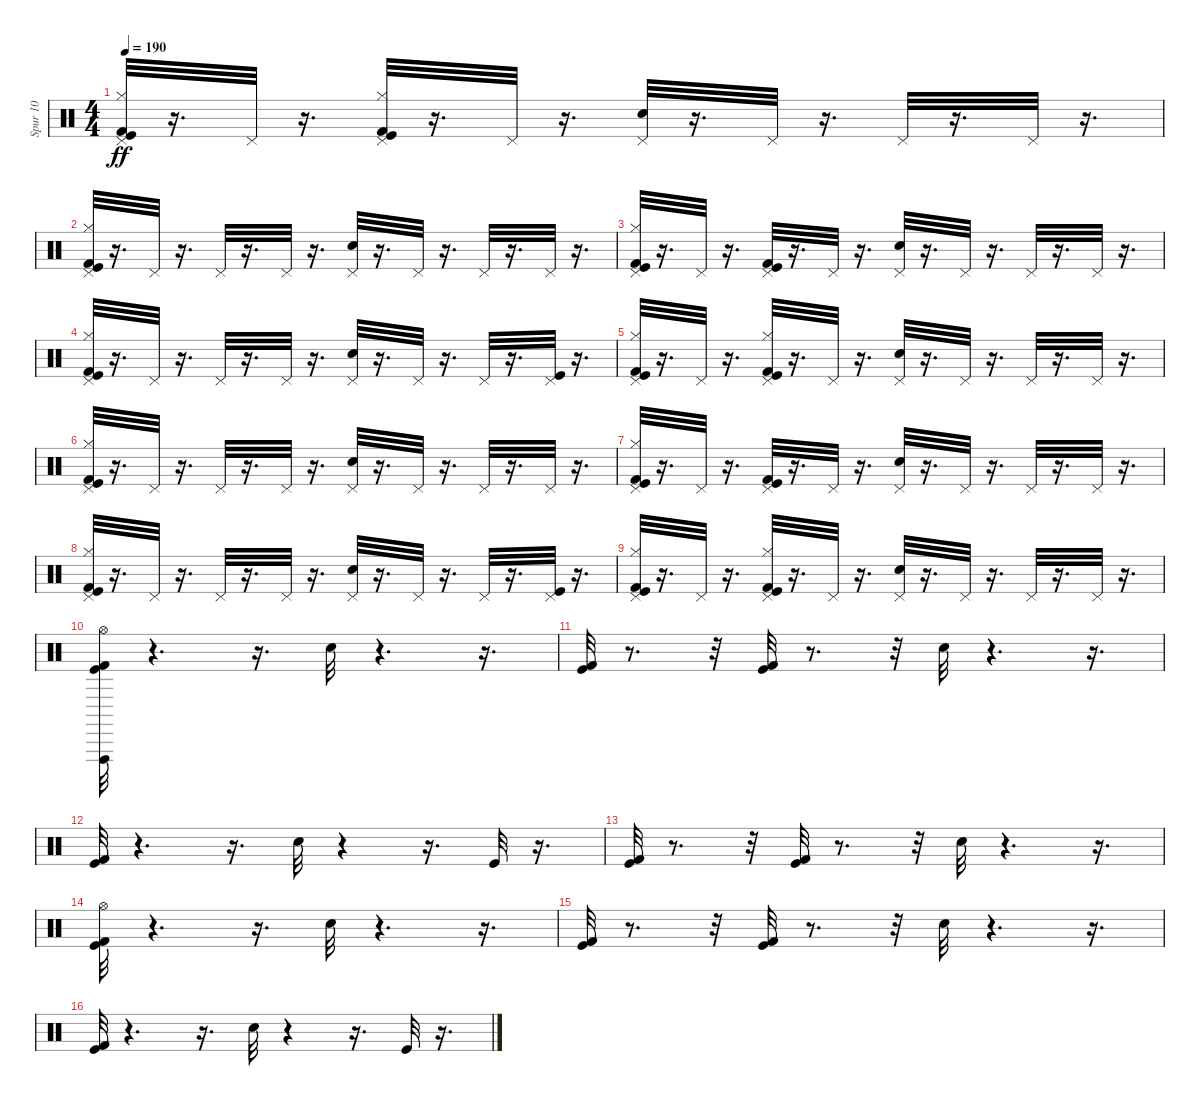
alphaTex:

\track ("Spur 10" "Spur 10") {instrument percussion}
\staff {score}
\articulation defaults
\ts (4 4)
\tempo 190
\clef neutral
\ks c
("Kick (hit)" "Kick (hit) 2" "Hi-Hat (closed)" "Pedal Hi-Hat (hit)").32{dy ff} r.16{d} "Pedal Hi-Hat (hit)".32 r.16{d} ("Hi-Hat (closed)" "Kick (hit)" "Pedal Hi-Hat (hit)" "Kick (hit) 2").32 r.16{d} "Pedal Hi-Hat (hit)".32 r.16{d} ("Hand Clap (hit)" "Pedal Hi-Hat (hit)").32 r.16{d} "Pedal Hi-Hat (hit)".32 r.16{d} "Pedal Hi-Hat (hit)".32 r.16{d} "Pedal Hi-Hat (hit)".32 r.16{d} |
("Kick (hit) 2" "Kick (hit)" "Pedal Hi-Hat (hit)" "Hi-Hat (closed)").32 r.16{d} "Pedal Hi-Hat (hit)".32 r.16{d} "Pedal Hi-Hat (hit)".32 r.16{d} "Pedal Hi-Hat (hit)".32 r.16{d} ("Hand Clap (hit)" "Pedal Hi-Hat (hit)").32 r.16{d} "Pedal Hi-Hat (hit)".32 r.16{d} "Pedal Hi-Hat (hit)".32 r.16{d} "Pedal Hi-Hat (hit)".32 r.16{d} |
("Pedal Hi-Hat (hit)" "Hi-Hat (closed)" "Kick (hit)" "Kick (hit) 2").32 r.16{d} "Pedal Hi-Hat (hit)".32 r.16{d} ("Pedal Hi-Hat (hit)" "Kick (hit) 2" "Kick (hit)").32 r.16{d} "Pedal Hi-Hat (hit)".32 r.16{d} ("Pedal Hi-Hat (hit)" "Hand Clap (hit)").32 r.16{d} "Pedal Hi-Hat (hit)".32 r.16{d} "Pedal Hi-Hat (hit)".32 r.16{d} "Pedal Hi-Hat (hit)".32 r.16{d} |
("Kick (hit)" "Kick (hit) 2" "Pedal Hi-Hat (hit)" "Hi-Hat (closed)").32 r.16{d} "Pedal Hi-Hat (hit)".32 r.16{d} "Pedal Hi-Hat (hit)".32 r.16{d} "Pedal Hi-Hat (hit)".32 r.16{d} ("Pedal Hi-Hat (hit)" "Hand Clap (hit)").32 r.16{d} "Pedal Hi-Hat (hit)".32 r.16{d} "Pedal Hi-Hat (hit)".32 r.16{d} ("Pedal Hi-Hat (hit)" "Kick (hit)").32 r.16{d} |
("Kick (hit)" "Kick (hit) 2" "Hi-Hat (closed)" "Pedal Hi-Hat (hit)").32 r.16{d} "Pedal Hi-Hat (hit)".32 r.16{d} ("Hi-Hat (closed)" "Kick (hit)" "Pedal Hi-Hat (hit)" "Kick (hit) 2").32 r.16{d} "Pedal Hi-Hat (hit)".32 r.16{d} ("Hand Clap (hit)" "Pedal Hi-Hat (hit)").32 r.16{d} "Pedal Hi-Hat (hit)".32 r.16{d} "Pedal Hi-Hat (hit)".32 r.16{d} "Pedal Hi-Hat (hit)".32 r.16{d} |
("Kick (hit) 2" "Kick (hit)" "Pedal Hi-Hat (hit)" "Hi-Hat (closed)").32 r.16{d} "Pedal Hi-Hat (hit)".32 r.16{d} "Pedal Hi-Hat (hit)".32 r.16{d} "Pedal Hi-Hat (hit)".32 r.16{d} ("Hand Clap (hit)" "Pedal Hi-Hat (hit)").32 r.16{d} "Pedal Hi-Hat (hit)".32 r.16{d} "Pedal Hi-Hat (hit)".32 r.16{d} "Pedal Hi-Hat (hit)".32 r.16{d} |
("Pedal Hi-Hat (hit)" "Hi-Hat (closed)" "Kick (hit)" "Kick (hit) 2").32 r.16{d} "Pedal Hi-Hat (hit)".32 r.16{d} ("Pedal Hi-Hat (hit)" "Kick (hit) 2" "Kick (hit)").32 r.16{d} "Pedal Hi-Hat (hit)".32 r.16{d} ("Pedal Hi-Hat (hit)" "Hand Clap (hit)").32 r.16{d} "Pedal Hi-Hat (hit)".32 r.16{d} "Pedal Hi-Hat (hit)".32 r.16{d} "Pedal Hi-Hat (hit)".32 r.16{d} |
("Kick (hit)" "Kick (hit) 2" "Pedal Hi-Hat (hit)" "Hi-Hat (closed)").32 r.16{d} "Pedal Hi-Hat (hit)".32 r.16{d} "Pedal Hi-Hat (hit)".32 r.16{d} "Pedal Hi-Hat (hit)".32 r.16{d} ("Pedal Hi-Hat (hit)" "Hand Clap (hit)").32 r.16{d} "Pedal Hi-Hat (hit)".32 r.16{d} "Pedal Hi-Hat (hit)".32 r.16{d} ("Pedal Hi-Hat (hit)" "Kick (hit)").32 r.16{d} |
("Kick (hit)" "Kick (hit) 2" "Hi-Hat (closed)" "Pedal Hi-Hat (hit)").32 r.16{d} "Pedal Hi-Hat (hit)".32 r.16{d} ("Hi-Hat (closed)" "Kick (hit)" "Pedal Hi-Hat (hit)" "Kick (hit) 2").32 r.16{d} "Pedal Hi-Hat (hit)".32 r.16{d} ("Hand Clap (hit)" "Pedal Hi-Hat (hit)").32 r.16{d} "Pedal Hi-Hat (hit)".32 r.16{d} "Pedal Hi-Hat (hit)".32 r.16{d} "Pedal Hi-Hat (hit)".32 r.16{d} |
("Vibraslap (hit)" "Hi-Hat (open)" "Kick (hit) 2" "Kick (hit)").32 r.4{d} r.16{d} "Hand Clap (hit)".32 r.4{d} r.16{d} |
("Kick (hit) 2" "Kick (hit)").32 r.8{d} r.32 ("Kick (hit) 2" "Kick (hit)").32 r.8{d} r.32 "Hand Clap (hit)".32 r.4{d} r.16{d} |
("Kick (hit) 2" "Kick (hit)").32 r.4{d} r.16{d} "Hand Clap (hit)".32 r.4 r.16{d} "Kick (hit)".32 r.16{d} |
("Kick (hit) 2" "Kick (hit)").32 r.8{d} r.32 ("Kick (hit) 2" "Kick (hit)").32 r.8{d} r.32 "Hand Clap (hit)".32 r.4{d} r.16{d} |
("Hi-Hat (open)" "Kick (hit) 2" "Kick (hit)").32 r.4{d} r.16{d} "Hand Clap (hit)".32 r.4{d} r.16{d} |
("Kick (hit) 2" "Kick (hit)").32 r.8{d} r.32 ("Kick (hit) 2" "Kick (hit)").32 r.8{d} r.32 "Hand Clap (hit)".32 r.4{d} r.16{d} |
("Kick (hit) 2" "Kick (hit)").32 r.4{d} r.16{d} "Hand Clap (hit)".32 r.4 r.16{d} "Kick (hit)".32 r.16{d}
